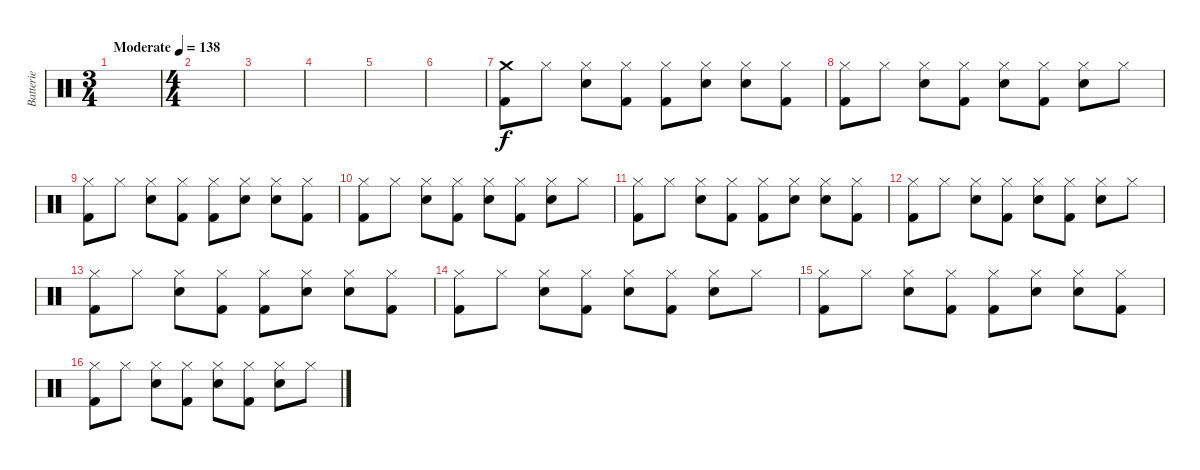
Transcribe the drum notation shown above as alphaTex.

\track ("Batterie" "Batterie") {instrument percussion}
\staff {score}
\articulation defaults
\ts (3 4)
\tempo (138 "Moderate")
\clef neutral
\ks c
|
\ts (4 4)
|
|
|
|
|
("Crash medium (hit)" "Kick (hit) 2").8 "Hi-Hat (closed)".8 ("Hi-Hat (closed)" "Electric Snare (hit)").8 ("Hi-Hat (closed)" "Kick (hit) 2").8 ("Hi-Hat (closed)" "Kick (hit) 2").8 ("Hi-Hat (closed)" "Electric Snare (hit)").8 ("Hi-Hat (closed)" "Electric Snare (hit)").8 ("Hi-Hat (closed)" "Kick (hit) 2").8 |
("Hi-Hat (closed)" "Kick (hit) 2").8 "Hi-Hat (closed)".8 ("Hi-Hat (closed)" "Electric Snare (hit)").8 ("Hi-Hat (closed)" "Kick (hit) 2").8 ("Hi-Hat (closed)" "Electric Snare (hit)").8 ("Hi-Hat (closed)" "Kick (hit) 2").8 ("Hi-Hat (closed)" "Electric Snare (hit)").8 "Hi-Hat (closed)".8 |
("Hi-Hat (closed)" "Kick (hit) 2").8 "Hi-Hat (closed)".8 ("Hi-Hat (closed)" "Electric Snare (hit)").8 ("Hi-Hat (closed)" "Kick (hit) 2").8 ("Hi-Hat (closed)" "Kick (hit) 2").8 ("Hi-Hat (closed)" "Electric Snare (hit)").8 ("Hi-Hat (closed)" "Electric Snare (hit)").8 ("Hi-Hat (closed)" "Kick (hit) 2").8 |
("Hi-Hat (closed)" "Kick (hit) 2").8 "Hi-Hat (closed)".8 ("Hi-Hat (closed)" "Electric Snare (hit)").8 ("Hi-Hat (closed)" "Kick (hit) 2").8 ("Hi-Hat (closed)" "Electric Snare (hit)").8 ("Hi-Hat (closed)" "Kick (hit) 2").8 ("Hi-Hat (closed)" "Electric Snare (hit)").8 "Hi-Hat (closed)".8 |
("Hi-Hat (closed)" "Kick (hit) 2").8 "Hi-Hat (closed)".8 ("Hi-Hat (closed)" "Electric Snare (hit)").8 ("Hi-Hat (closed)" "Kick (hit) 2").8 ("Hi-Hat (closed)" "Kick (hit) 2").8 ("Hi-Hat (closed)" "Electric Snare (hit)").8 ("Hi-Hat (closed)" "Electric Snare (hit)").8 ("Hi-Hat (closed)" "Kick (hit) 2").8 |
("Hi-Hat (closed)" "Kick (hit) 2").8 "Hi-Hat (closed)".8 ("Hi-Hat (closed)" "Electric Snare (hit)").8 ("Hi-Hat (closed)" "Kick (hit) 2").8 ("Hi-Hat (closed)" "Electric Snare (hit)").8 ("Hi-Hat (closed)" "Kick (hit) 2").8 ("Hi-Hat (closed)" "Electric Snare (hit)").8 "Hi-Hat (closed)".8 |
("Hi-Hat (closed)" "Kick (hit) 2").8 "Hi-Hat (closed)".8 ("Hi-Hat (closed)" "Electric Snare (hit)").8 ("Hi-Hat (closed)" "Kick (hit) 2").8 ("Hi-Hat (closed)" "Kick (hit) 2").8 ("Hi-Hat (closed)" "Electric Snare (hit)").8 ("Hi-Hat (closed)" "Electric Snare (hit)").8 ("Hi-Hat (closed)" "Kick (hit) 2").8 |
("Hi-Hat (closed)" "Kick (hit) 2").8 "Hi-Hat (closed)".8 ("Hi-Hat (closed)" "Electric Snare (hit)").8 ("Hi-Hat (closed)" "Kick (hit) 2").8 ("Hi-Hat (closed)" "Electric Snare (hit)").8 ("Hi-Hat (closed)" "Kick (hit) 2").8 ("Hi-Hat (closed)" "Electric Snare (hit)").8 "Hi-Hat (closed)".8 |
("Hi-Hat (closed)" "Kick (hit) 2").8 "Hi-Hat (closed)".8 ("Hi-Hat (closed)" "Electric Snare (hit)").8 ("Hi-Hat (closed)" "Kick (hit) 2").8 ("Hi-Hat (closed)" "Kick (hit) 2").8 ("Hi-Hat (closed)" "Electric Snare (hit)").8 ("Hi-Hat (closed)" "Electric Snare (hit)").8 ("Hi-Hat (closed)" "Kick (hit) 2").8 |
("Hi-Hat (closed)" "Kick (hit) 2").8 "Hi-Hat (closed)".8 ("Hi-Hat (closed)" "Electric Snare (hit)").8 ("Hi-Hat (closed)" "Kick (hit) 2").8 ("Hi-Hat (closed)" "Electric Snare (hit)").8 ("Hi-Hat (closed)" "Kick (hit) 2").8 ("Hi-Hat (closed)" "Electric Snare (hit)").8 "Hi-Hat (closed)".8
